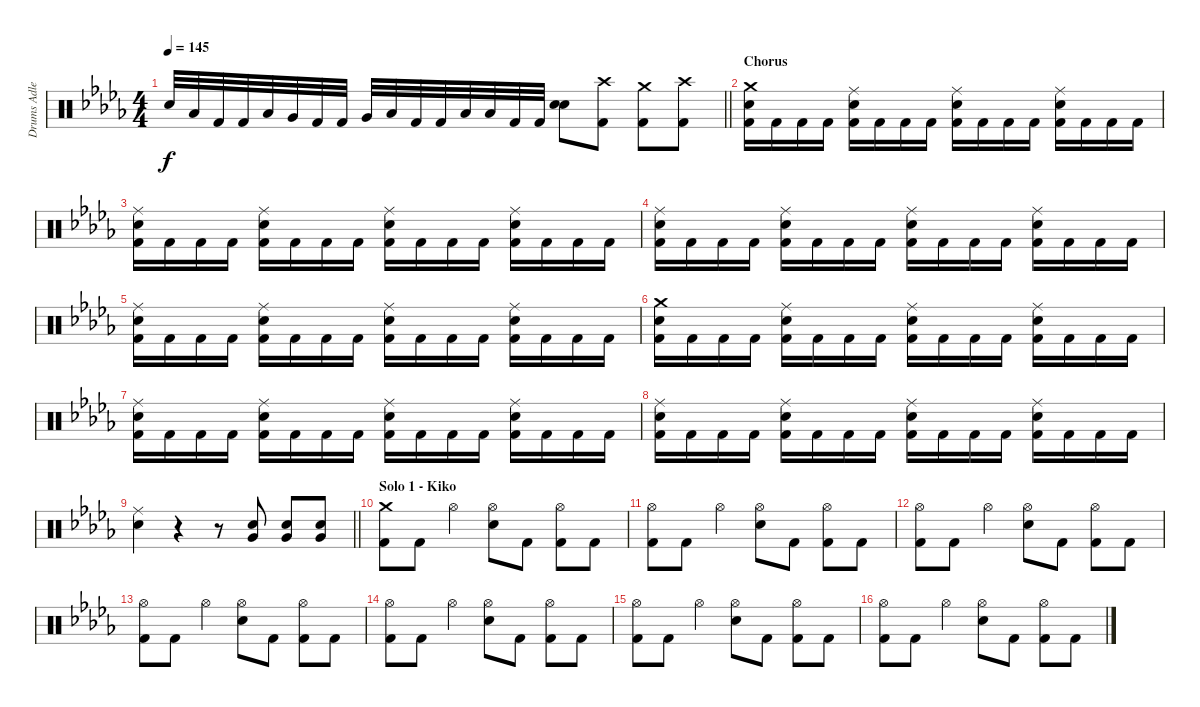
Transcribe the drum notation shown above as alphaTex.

\track ("Drums Adler" "Drums Adle") {instrument percussion}
\staff {score}
\articulation defaults
\ts (4 4)
\tempo 145
\clef neutral
\barLineRight lightlight
\ks db "Snare (hit) 2".32{dy f} "Low Tom (hit)".32 "Kick (hit) 2".32 "Kick (hit) 2".32 "Low Tom (hit)".32 "Very Low Tom (hit)".32 "Kick (hit) 2".32 "Kick (hit) 2".32 "Very Low Tom (hit)".32 "Low Floor Tom (hit)".32 "Kick (hit) 2".32 "Kick (hit) 2".32 "Low Floor Tom (hit)".32 "Low Floor Tom (hit)".32 "Kick (hit) 2".32 "Kick (hit) 2".32
("Snare (hit) 2" "Snare (hit) 2").8{bd 60} ("Crash high (hit)" "Kick (hit) 2").8 ("Crash medium (hit)" "Kick (hit) 2").8 ("Crash high (hit)" "Kick (hit) 2").8 |
\section ("" "Chorus")
("Crash medium (hit)" "Snare (hit) 2" "Kick (hit) 2").16 "Kick (hit) 2".16 "Kick (hit) 2".16 "Kick (hit) 2".16 ("Ride (middle)" "Snare (hit) 2" "Kick (hit) 2").16 "Kick (hit) 2".16 "Kick (hit) 2".16 "Kick (hit) 2".16 ("Ride (middle)" "Snare (hit) 2" "Kick (hit) 2").16 "Kick (hit) 2".16 "Kick (hit) 2".16 "Kick (hit) 2".16 ("Ride (middle)" "Snare (hit) 2" "Kick (hit) 2").16 "Kick (hit) 2".16 "Kick (hit) 2".16 "Kick (hit) 2".16 |
("Ride (middle)" "Snare (hit) 2" "Kick (hit) 2").16 "Kick (hit) 2".16 "Kick (hit) 2".16 "Kick (hit) 2".16 ("Ride (middle)" "Snare (hit) 2" "Kick (hit) 2").16 "Kick (hit) 2".16 "Kick (hit) 2".16 "Kick (hit) 2".16 ("Ride (middle)" "Snare (hit) 2" "Kick (hit) 2").16 "Kick (hit) 2".16 "Kick (hit) 2".16 "Kick (hit) 2".16 ("Ride (middle)" "Snare (hit) 2" "Kick (hit) 2").16 "Kick (hit) 2".16 "Kick (hit) 2".16 "Kick (hit) 2".16 |
("Ride (middle)" "Snare (hit) 2" "Kick (hit) 2").16 "Kick (hit) 2".16 "Kick (hit) 2".16 "Kick (hit) 2".16 ("Ride (middle)" "Snare (hit) 2" "Kick (hit) 2").16 "Kick (hit) 2".16 "Kick (hit) 2".16 "Kick (hit) 2".16 ("Ride (middle)" "Snare (hit) 2" "Kick (hit) 2").16 "Kick (hit) 2".16 "Kick (hit) 2".16 "Kick (hit) 2".16 ("Ride (middle)" "Snare (hit) 2" "Kick (hit) 2").16 "Kick (hit) 2".16 "Kick (hit) 2".16 "Kick (hit) 2".16 |
("Ride (middle)" "Snare (hit) 2" "Kick (hit) 2").16 "Kick (hit) 2".16 "Kick (hit) 2".16 "Kick (hit) 2".16 ("Ride (middle)" "Snare (hit) 2" "Kick (hit) 2").16 "Kick (hit) 2".16 "Kick (hit) 2".16 "Kick (hit) 2".16 ("Ride (middle)" "Snare (hit) 2" "Kick (hit) 2").16 "Kick (hit) 2".16 "Kick (hit) 2".16 "Kick (hit) 2".16 ("Ride (middle)" "Snare (hit) 2" "Kick (hit) 2").16 "Kick (hit) 2".16 "Kick (hit) 2".16 "Kick (hit) 2".16 |
("Crash medium (hit)" "Snare (hit) 2" "Kick (hit) 2").16 "Kick (hit) 2".16 "Kick (hit) 2".16 "Kick (hit) 2".16 ("Ride (middle)" "Snare (hit) 2" "Kick (hit) 2").16 "Kick (hit) 2".16 "Kick (hit) 2".16 "Kick (hit) 2".16 ("Ride (middle)" "Snare (hit) 2" "Kick (hit) 2").16 "Kick (hit) 2".16 "Kick (hit) 2".16 "Kick (hit) 2".16 ("Ride (middle)" "Snare (hit) 2" "Kick (hit) 2").16 "Kick (hit) 2".16 "Kick (hit) 2".16 "Kick (hit) 2".16 |
("Ride (middle)" "Snare (hit) 2" "Kick (hit) 2").16 "Kick (hit) 2".16 "Kick (hit) 2".16 "Kick (hit) 2".16 ("Ride (middle)" "Snare (hit) 2" "Kick (hit) 2").16 "Kick (hit) 2".16 "Kick (hit) 2".16 "Kick (hit) 2".16 ("Ride (middle)" "Snare (hit) 2" "Kick (hit) 2").16 "Kick (hit) 2".16 "Kick (hit) 2".16 "Kick (hit) 2".16 ("Ride (middle)" "Snare (hit) 2" "Kick (hit) 2").16 "Kick (hit) 2".16 "Kick (hit) 2".16 "Kick (hit) 2".16 |
("Ride (middle)" "Snare (hit) 2" "Kick (hit) 2").16 "Kick (hit) 2".16 "Kick (hit) 2".16 "Kick (hit) 2".16 ("Ride (middle)" "Snare (hit) 2" "Kick (hit) 2").16 "Kick (hit) 2".16 "Kick (hit) 2".16 "Kick (hit) 2".16 ("Ride (middle)" "Snare (hit) 2" "Kick (hit) 2").16 "Kick (hit) 2".16 "Kick (hit) 2".16 "Kick (hit) 2".16 ("Ride (middle)" "Snare (hit) 2" "Kick (hit) 2").16 "Kick (hit) 2".16 "Kick (hit) 2".16 "Kick (hit) 2".16 |
\barLineRight lightlight
("Ride (middle)" "Snare (hit) 2").4 r.4 r.8 ("Snare (hit) 2" "Very Low Tom (hit)").8 ("Snare (hit) 2" "Very Low Tom (hit)").8 ("Snare (hit) 2" "Very Low Tom (hit)").8 |
\section ("" "Solo 1 - Kiko")
("Crash medium (hit)" "Kick (hit) 2").8 "Kick (hit) 2".8 "Hi-Hat (open)".4 ("Hi-Hat (open)" "Snare (hit) 2").8 "Kick (hit) 2".8 ("Hi-Hat (open)" "Kick (hit) 2").8 "Kick (hit) 2".8 |
("Hi-Hat (open)" "Kick (hit) 2").8 "Kick (hit) 2".8 "Hi-Hat (open)".4 ("Hi-Hat (open)" "Snare (hit) 2").8 "Kick (hit) 2".8 ("Hi-Hat (open)" "Kick (hit) 2").8 "Kick (hit) 2".8 |
("Hi-Hat (open)" "Kick (hit) 2").8 "Kick (hit) 2".8 "Hi-Hat (open)".4 ("Hi-Hat (open)" "Snare (hit) 2").8 "Kick (hit) 2".8 ("Hi-Hat (open)" "Kick (hit) 2").8 "Kick (hit) 2".8 |
("Hi-Hat (open)" "Kick (hit) 2").8 "Kick (hit) 2".8 "Hi-Hat (open)".4 ("Hi-Hat (open)" "Snare (hit) 2").8 "Kick (hit) 2".8 ("Hi-Hat (open)" "Kick (hit) 2").8 "Kick (hit) 2".8 |
("Hi-Hat (open)" "Kick (hit) 2").8 "Kick (hit) 2".8 "Hi-Hat (open)".4 ("Hi-Hat (open)" "Snare (hit) 2").8 "Kick (hit) 2".8 ("Hi-Hat (open)" "Kick (hit) 2").8 "Kick (hit) 2".8 |
("Hi-Hat (open)" "Kick (hit) 2").8 "Kick (hit) 2".8 "Hi-Hat (open)".4 ("Hi-Hat (open)" "Snare (hit) 2").8 "Kick (hit) 2".8 ("Hi-Hat (open)" "Kick (hit) 2").8 "Kick (hit) 2".8 |
("Hi-Hat (open)" "Kick (hit) 2").8 "Kick (hit) 2".8 "Hi-Hat (open)".4 ("Hi-Hat (open)" "Snare (hit) 2").8 "Kick (hit) 2".8 ("Hi-Hat (open)" "Kick (hit) 2").8 "Kick (hit) 2".8
